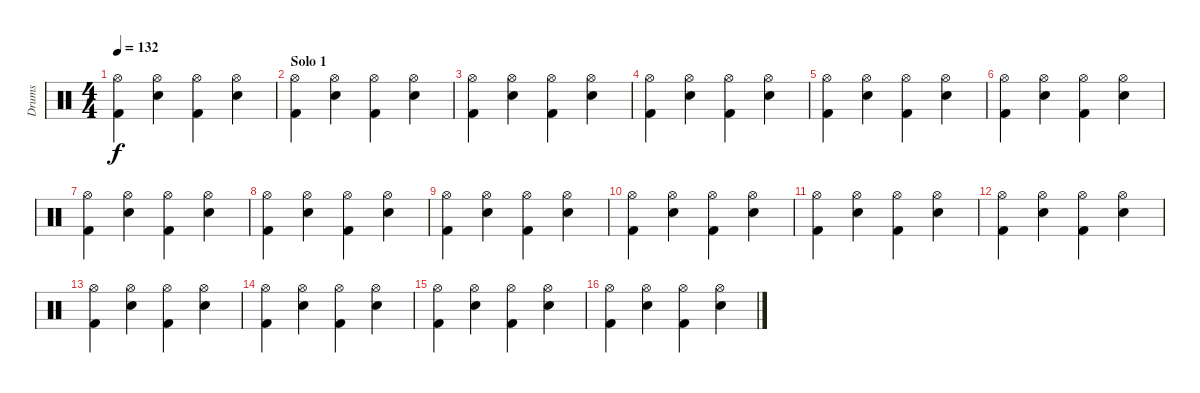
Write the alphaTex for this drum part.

\track ("Drums" "Drums") {instrument percussion}
\staff {score}
\articulation defaults
\ts (4 4)
\tempo 132
\clef neutral
\ks c
("Kick (hit) 2" "Hi-Hat (open)").4{dy f} ("Snare (hit) 2" "Hi-Hat (open)").4 ("Kick (hit) 2" "Hi-Hat (open)").4 ("Snare (hit) 2" "Hi-Hat (open)").4 |
\section ("" "Solo 1")
("Kick (hit) 2" "Hi-Hat (open)").4 ("Snare (hit) 2" "Hi-Hat (open)").4 ("Kick (hit) 2" "Hi-Hat (open)").4 ("Snare (hit) 2" "Hi-Hat (open)").4 |
("Kick (hit) 2" "Hi-Hat (open)").4 ("Snare (hit) 2" "Hi-Hat (open)").4 ("Kick (hit) 2" "Hi-Hat (open)").4 ("Snare (hit) 2" "Hi-Hat (open)").4 |
("Kick (hit) 2" "Hi-Hat (open)").4 ("Snare (hit) 2" "Hi-Hat (open)").4 ("Kick (hit) 2" "Hi-Hat (open)").4 ("Snare (hit) 2" "Hi-Hat (open)").4 |
("Kick (hit) 2" "Hi-Hat (open)").4 ("Snare (hit) 2" "Hi-Hat (open)").4 ("Kick (hit) 2" "Hi-Hat (open)").4 ("Snare (hit) 2" "Hi-Hat (open)").4 |
("Kick (hit) 2" "Hi-Hat (open)").4 ("Snare (hit) 2" "Hi-Hat (open)").4 ("Kick (hit) 2" "Hi-Hat (open)").4 ("Snare (hit) 2" "Hi-Hat (open)").4 |
("Kick (hit) 2" "Hi-Hat (open)").4 ("Snare (hit) 2" "Hi-Hat (open)").4 ("Kick (hit) 2" "Hi-Hat (open)").4 ("Snare (hit) 2" "Hi-Hat (open)").4 |
("Kick (hit) 2" "Hi-Hat (open)").4 ("Snare (hit) 2" "Hi-Hat (open)").4 ("Kick (hit) 2" "Hi-Hat (open)").4 ("Snare (hit) 2" "Hi-Hat (open)").4 |
("Kick (hit) 2" "Hi-Hat (open)").4 ("Snare (hit) 2" "Hi-Hat (open)").4 ("Kick (hit) 2" "Hi-Hat (open)").4 ("Snare (hit) 2" "Hi-Hat (open)").4 |
("Kick (hit) 2" "Hi-Hat (open)").4 ("Snare (hit) 2" "Hi-Hat (open)").4 ("Kick (hit) 2" "Hi-Hat (open)").4 ("Snare (hit) 2" "Hi-Hat (open)").4 |
("Kick (hit) 2" "Hi-Hat (open)").4 ("Snare (hit) 2" "Hi-Hat (open)").4 ("Kick (hit) 2" "Hi-Hat (open)").4 ("Snare (hit) 2" "Hi-Hat (open)").4 |
("Kick (hit) 2" "Hi-Hat (open)").4 ("Snare (hit) 2" "Hi-Hat (open)").4 ("Kick (hit) 2" "Hi-Hat (open)").4 ("Snare (hit) 2" "Hi-Hat (open)").4 |
("Kick (hit) 2" "Hi-Hat (open)").4 ("Snare (hit) 2" "Hi-Hat (open)").4 ("Kick (hit) 2" "Hi-Hat (open)").4 ("Snare (hit) 2" "Hi-Hat (open)").4 |
("Kick (hit) 2" "Hi-Hat (open)").4 ("Snare (hit) 2" "Hi-Hat (open)").4 ("Kick (hit) 2" "Hi-Hat (open)").4 ("Snare (hit) 2" "Hi-Hat (open)").4 |
("Kick (hit) 2" "Hi-Hat (open)").4 ("Snare (hit) 2" "Hi-Hat (open)").4 ("Kick (hit) 2" "Hi-Hat (open)").4 ("Snare (hit) 2" "Hi-Hat (open)").4 |
("Kick (hit) 2" "Hi-Hat (open)").4 ("Snare (hit) 2" "Hi-Hat (open)").4 ("Kick (hit) 2" "Hi-Hat (open)").4 ("Snare (hit) 2" "Hi-Hat (open)").4
